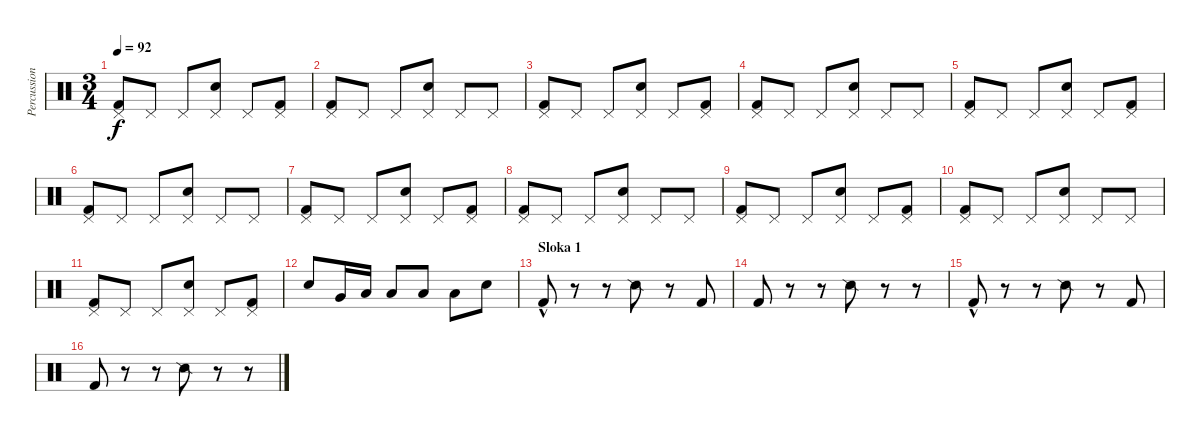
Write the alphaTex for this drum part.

\track ("Percussion" "Percussion") {instrument percussion}
\staff {score}
\articulation defaults
\ts (3 4)
\tempo 92
\clef neutral
\ks c
("Pedal Hi-Hat (hit)" "Kick (hit) 2").8{dy f} "Pedal Hi-Hat (hit)".8 "Pedal Hi-Hat (hit)".8 ("Pedal Hi-Hat (hit)" "Electric Snare (hit)").8 "Pedal Hi-Hat (hit)".8 ("Pedal Hi-Hat (hit)" "Kick (hit) 2").8 |
("Pedal Hi-Hat (hit)" "Kick (hit) 2").8 "Pedal Hi-Hat (hit)".8 "Pedal Hi-Hat (hit)".8 ("Pedal Hi-Hat (hit)" "Electric Snare (hit)").8 "Pedal Hi-Hat (hit)".8 "Pedal Hi-Hat (hit)".8 |
("Pedal Hi-Hat (hit)" "Kick (hit) 2").8 "Pedal Hi-Hat (hit)".8 "Pedal Hi-Hat (hit)".8 ("Pedal Hi-Hat (hit)" "Electric Snare (hit)").8 "Pedal Hi-Hat (hit)".8 ("Pedal Hi-Hat (hit)" "Kick (hit) 2").8 |
("Pedal Hi-Hat (hit)" "Kick (hit) 2").8 "Pedal Hi-Hat (hit)".8 "Pedal Hi-Hat (hit)".8 ("Pedal Hi-Hat (hit)" "Electric Snare (hit)").8 "Pedal Hi-Hat (hit)".8 "Pedal Hi-Hat (hit)".8 |
("Pedal Hi-Hat (hit)" "Kick (hit) 2").8 "Pedal Hi-Hat (hit)".8 "Pedal Hi-Hat (hit)".8 ("Pedal Hi-Hat (hit)" "Electric Snare (hit)").8 "Pedal Hi-Hat (hit)".8 ("Pedal Hi-Hat (hit)" "Kick (hit) 2").8 |
("Pedal Hi-Hat (hit)" "Kick (hit) 2").8 "Pedal Hi-Hat (hit)".8 "Pedal Hi-Hat (hit)".8 ("Pedal Hi-Hat (hit)" "Electric Snare (hit)").8 "Pedal Hi-Hat (hit)".8 "Pedal Hi-Hat (hit)".8 |
("Pedal Hi-Hat (hit)" "Kick (hit) 2").8 "Pedal Hi-Hat (hit)".8 "Pedal Hi-Hat (hit)".8 ("Pedal Hi-Hat (hit)" "Electric Snare (hit)").8 "Pedal Hi-Hat (hit)".8 ("Pedal Hi-Hat (hit)" "Kick (hit) 2").8 |
("Pedal Hi-Hat (hit)" "Kick (hit) 2").8 "Pedal Hi-Hat (hit)".8 "Pedal Hi-Hat (hit)".8 ("Pedal Hi-Hat (hit)" "Electric Snare (hit)").8 "Pedal Hi-Hat (hit)".8 "Pedal Hi-Hat (hit)".8 |
("Pedal Hi-Hat (hit)" "Kick (hit) 2").8 "Pedal Hi-Hat (hit)".8 "Pedal Hi-Hat (hit)".8 ("Pedal Hi-Hat (hit)" "Electric Snare (hit)").8 "Pedal Hi-Hat (hit)".8 ("Pedal Hi-Hat (hit)" "Kick (hit) 2").8 |
("Pedal Hi-Hat (hit)" "Kick (hit) 2").8 "Pedal Hi-Hat (hit)".8 "Pedal Hi-Hat (hit)".8 ("Pedal Hi-Hat (hit)" "Electric Snare (hit)").8 "Pedal Hi-Hat (hit)".8 "Pedal Hi-Hat (hit)".8 |
("Pedal Hi-Hat (hit)" "Kick (hit) 2").8 "Pedal Hi-Hat (hit)".8 "Pedal Hi-Hat (hit)".8 ("Pedal Hi-Hat (hit)" "Electric Snare (hit)").8 "Pedal Hi-Hat (hit)".8 ("Pedal Hi-Hat (hit)" "Kick (hit) 2").8 |
"Electric Snare (hit)".8 "Very Low Tom (hit)".16 "Low Tom (hit)".16 "Low Tom (hit)".8 "Low Tom (hit)".8 "Low Tom (hit)".8 "Snare (hit)".8 |
\section ("" "Sloka 1")
"Kick (hit) 2"{hac}.8 r.8 r.8 "Snare (side stick) 2".8 r.8 "Kick (hit) 2".8 |
"Kick (hit) 2".8 r.8 r.8 "Snare (side stick) 2".8 r.8 r.8 |
"Kick (hit) 2"{hac}.8 r.8 r.8 "Snare (side stick) 2".8 r.8 "Kick (hit) 2".8 |
"Kick (hit) 2".8 r.8 r.8 "Snare (side stick) 2".8 r.8 r.8
